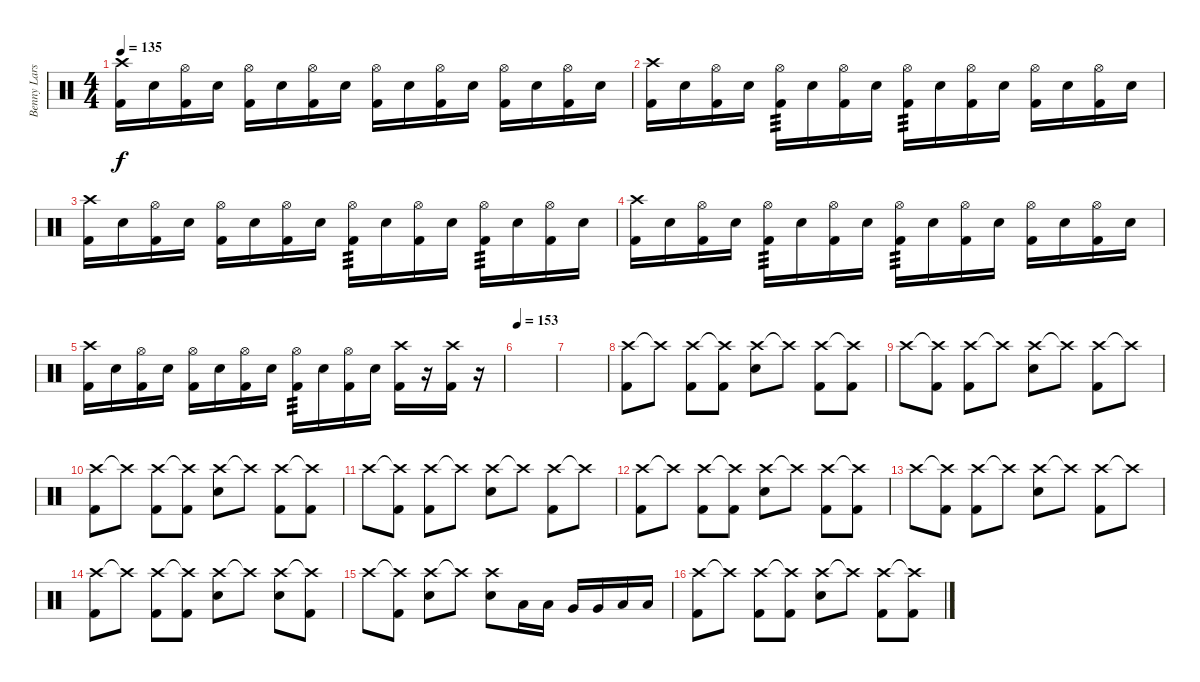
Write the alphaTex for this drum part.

\track ("Benny Larsson" "Benny Lars") {instrument percussion}
\staff {score}
\articulation defaults
\ts (4 4)
\tempo 135
\clef neutral
\ks c
("Crash high (hit)" "Kick (hit) 2").16{dy f} "Electric Snare (hit)".16 ("Hi-Hat (open)" "Kick (hit) 2").16 "Electric Snare (hit)".16 ("Hi-Hat (open)" "Kick (hit) 2").16 "Electric Snare (hit)".16 ("Hi-Hat (open)" "Kick (hit) 2").16 "Electric Snare (hit)".16 ("Hi-Hat (open)" "Kick (hit) 2").16 "Electric Snare (hit)".16 ("Hi-Hat (open)" "Kick (hit) 2").16 "Electric Snare (hit)".16 ("Hi-Hat (open)" "Kick (hit) 2").16 "Electric Snare (hit)".16 ("Hi-Hat (open)" "Kick (hit) 2").16 "Electric Snare (hit)".16 |
("Crash high (hit)" "Kick (hit) 2").16 "Electric Snare (hit)".16 ("Hi-Hat (open)" "Kick (hit) 2").16 "Electric Snare (hit)".16 ("Hi-Hat (open)" "Kick (hit) 2").16{tp 3} "Electric Snare (hit)".16 ("Hi-Hat (open)" "Kick (hit) 2").16 "Electric Snare (hit)".16 ("Hi-Hat (open)" "Kick (hit) 2").16{tp 3} "Electric Snare (hit)".16 ("Hi-Hat (open)" "Kick (hit) 2").16 "Electric Snare (hit)".16 ("Hi-Hat (open)" "Kick (hit) 2").16 "Electric Snare (hit)".16 ("Hi-Hat (open)" "Kick (hit) 2").16 "Electric Snare (hit)".16 |
("Crash high (hit)" "Kick (hit) 2").16 "Electric Snare (hit)".16 ("Hi-Hat (open)" "Kick (hit) 2").16 "Electric Snare (hit)".16 ("Hi-Hat (open)" "Kick (hit) 2").16 "Electric Snare (hit)".16 ("Hi-Hat (open)" "Kick (hit) 2").16 "Electric Snare (hit)".16 ("Hi-Hat (open)" "Kick (hit) 2").16{tp 3} "Electric Snare (hit)".16 ("Hi-Hat (open)" "Kick (hit) 2").16 "Electric Snare (hit)".16 ("Hi-Hat (open)" "Kick (hit) 2").16{tp 3} "Electric Snare (hit)".16 ("Hi-Hat (open)" "Kick (hit) 2").16 "Electric Snare (hit)".16 |
("Crash high (hit)" "Kick (hit) 2").16 "Electric Snare (hit)".16 ("Hi-Hat (open)" "Kick (hit) 2").16 "Electric Snare (hit)".16 ("Hi-Hat (open)" "Kick (hit) 2").16{tp 3} "Electric Snare (hit)".16 ("Hi-Hat (open)" "Kick (hit) 2").16 "Electric Snare (hit)".16 ("Hi-Hat (open)" "Kick (hit) 2").16{tp 3} "Electric Snare (hit)".16 ("Hi-Hat (open)" "Kick (hit) 2").16 "Electric Snare (hit)".16 ("Hi-Hat (open)" "Kick (hit) 2").16 "Electric Snare (hit)".16 ("Hi-Hat (open)" "Kick (hit) 2").16 "Electric Snare (hit)".16 |
("Crash high (hit)" "Kick (hit) 2").16 "Electric Snare (hit)".16 ("Hi-Hat (open)" "Kick (hit) 2").16 "Electric Snare (hit)".16 ("Hi-Hat (open)" "Kick (hit) 2").16 "Electric Snare (hit)".16 ("Hi-Hat (open)" "Kick (hit) 2").16 "Electric Snare (hit)".16 ("Hi-Hat (open)" "Kick (hit) 2").16{tp 3} "Electric Snare (hit)".16 ("Hi-Hat (open)" "Kick (hit) 2").16 "Electric Snare (hit)".16 ("Crash high (hit)" "Kick (hit) 2").16 r.16 ("Crash high (hit)" "Kick (hit) 2").16 r.16 |
\tempo 153
|
|
("Crash high (hit)" "Kick (hit) 2").8 "Crash high (hit)"{t}.8 ("Crash high (hit)" "Kick (hit) 2").8 ("Crash high (hit)"{t} "Kick (hit) 2").8 ("Crash high (hit)" "Electric Snare (hit)").8 "Crash high (hit)"{t}.8 ("Crash high (hit)" "Kick (hit) 2").8 ("Crash high (hit)"{t} "Kick (hit) 2").8 |
"Crash high (hit)".8 ("Crash high (hit)"{t} "Kick (hit) 2").8 ("Crash high (hit)" "Kick (hit) 2").8 "Crash high (hit)"{t}.8 ("Crash high (hit)" "Electric Snare (hit)").8 "Crash high (hit)"{t}.8 ("Crash high (hit)" "Kick (hit) 2").8 "Crash high (hit)"{t}.8 |
("Crash high (hit)" "Kick (hit) 2").8 "Crash high (hit)"{t}.8 ("Crash high (hit)" "Kick (hit) 2").8 ("Crash high (hit)"{t} "Kick (hit) 2").8 ("Crash high (hit)" "Electric Snare (hit)").8 "Crash high (hit)"{t}.8 ("Crash high (hit)" "Kick (hit) 2").8 ("Crash high (hit)"{t} "Kick (hit) 2").8 |
"Crash high (hit)".8 ("Crash high (hit)"{t} "Kick (hit) 2").8 ("Crash high (hit)" "Kick (hit) 2").8 "Crash high (hit)"{t}.8 ("Crash high (hit)" "Electric Snare (hit)").8 "Crash high (hit)"{t}.8 ("Crash high (hit)" "Kick (hit) 2").8 "Crash high (hit)"{t}.8 |
("Crash high (hit)" "Kick (hit) 2").8 "Crash high (hit)"{t}.8 ("Crash high (hit)" "Kick (hit) 2").8 ("Crash high (hit)"{t} "Kick (hit) 2").8 ("Crash high (hit)" "Electric Snare (hit)").8 "Crash high (hit)"{t}.8 ("Crash high (hit)" "Kick (hit) 2").8 ("Crash high (hit)"{t} "Kick (hit) 2").8 |
"Crash high (hit)".8 ("Crash high (hit)"{t} "Kick (hit) 2").8 ("Crash high (hit)" "Kick (hit) 2").8 "Crash high (hit)"{t}.8 ("Crash high (hit)" "Electric Snare (hit)").8 "Crash high (hit)"{t}.8 ("Crash high (hit)" "Kick (hit) 2").8 "Crash high (hit)"{t}.8 |
("Crash high (hit)" "Kick (hit) 2").8 "Crash high (hit)"{t}.8 ("Crash high (hit)" "Kick (hit) 2").8 ("Crash high (hit)"{t} "Kick (hit) 2").8 ("Crash high (hit)" "Electric Snare (hit)").8 "Crash high (hit)"{t}.8 ("Crash high (hit)" "Electric Snare (hit)").8 ("Crash high (hit)"{t} "Kick (hit) 2").8 |
"Crash high (hit)".8 ("Crash high (hit)"{t} "Kick (hit) 2").8 ("Crash high (hit)" "Electric Snare (hit)").8 "Crash high (hit)"{t}.8 ("Crash high (hit)" "Electric Snare (hit)").8 "Low Tom (hit)".16 "Low Tom (hit)".16 "Very Low Tom (hit)".16 "Very Low Tom (hit)".16 "Low Floor Tom (hit)".16 "Low Floor Tom (hit)".16 |
("Crash high (hit)" "Kick (hit) 2").8 "Crash high (hit)"{t}.8 ("Crash high (hit)" "Kick (hit) 2").8 ("Crash high (hit)"{t} "Kick (hit) 2").8 ("Crash high (hit)" "Electric Snare (hit)").8 "Crash high (hit)"{t}.8 ("Crash high (hit)" "Kick (hit) 2").8 ("Crash high (hit)"{t} "Kick (hit) 2").8
